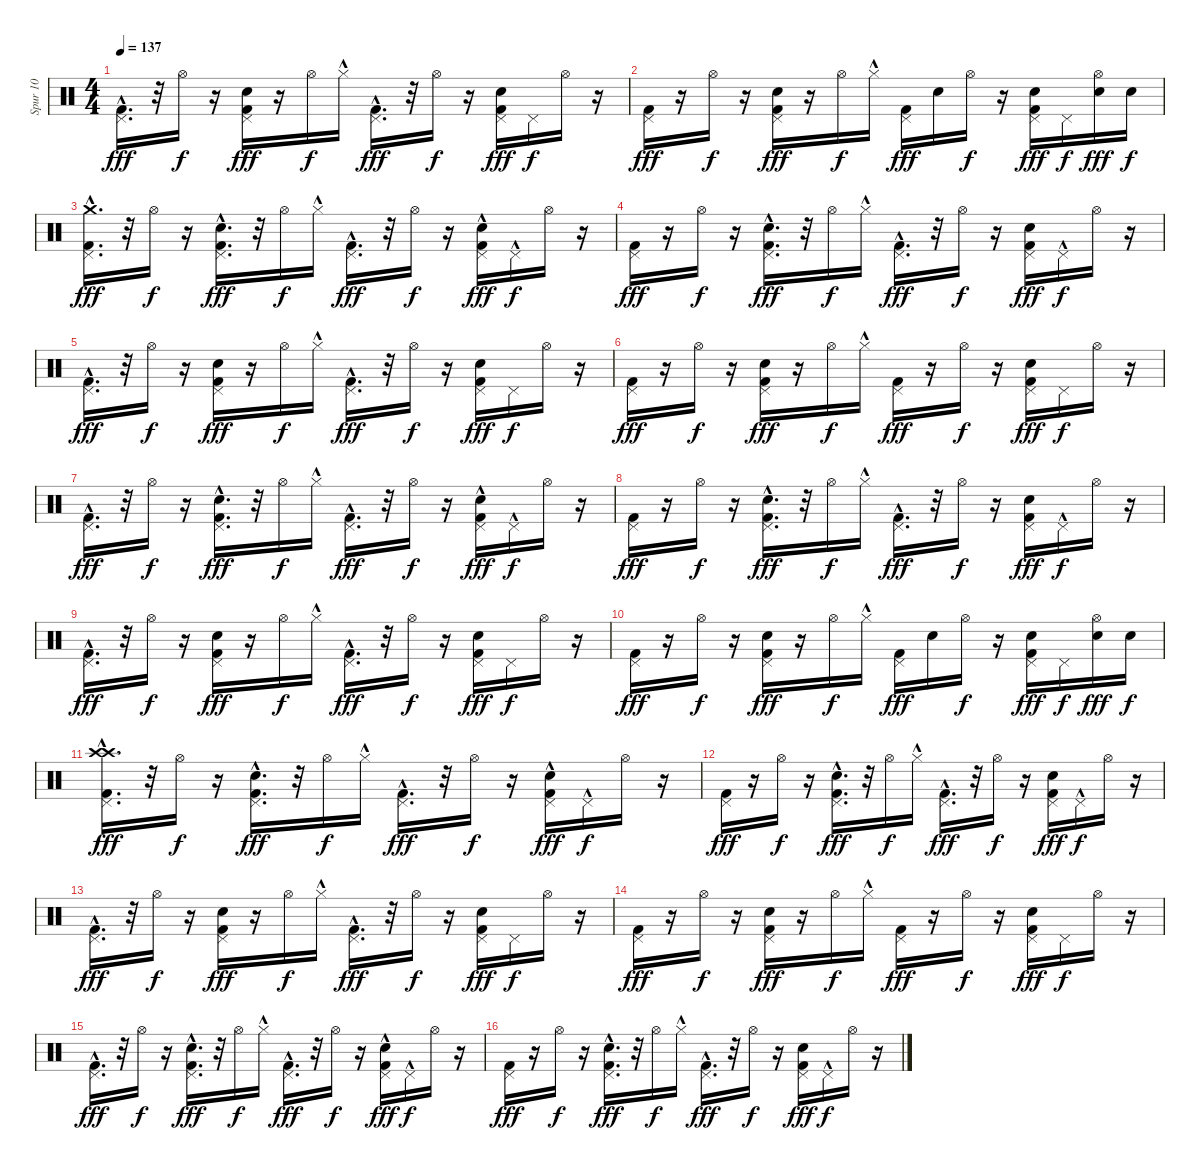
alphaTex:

\track ("Spur 10" "Spur 10") {instrument percussion}
\staff {score}
\articulation defaults
\ts (4 4)
\tempo 137
\clef neutral
\ks c
("Pedal Hi-Hat (hit)" "Kick (hit) 2"{hac}).16{d dy fff} r.32 "Hi-Hat (open)".16{dy f} r.16 ("Snare (hit) 2" "Pedal Hi-Hat (hit)" "Kick (hit) 2").16{dy fff} r.16 "Hi-Hat (open)".16{dy f} "Hi-Hat (closed)"{hac}.16 ("Pedal Hi-Hat (hit)" "Kick (hit) 2"{hac}).16{d dy fff} r.32 "Hi-Hat (open)".16{dy f} r.16 ("Snare (hit) 2" "Pedal Hi-Hat (hit)" "Kick (hit) 2").16{dy fff} "Pedal Hi-Hat (hit)".16{dy f} "Hi-Hat (open)".16 r.16 |
("Pedal Hi-Hat (hit)" "Kick (hit) 2").16{dy fff} r.16 "Hi-Hat (open)".16{dy f} r.16 ("Snare (hit) 2" "Pedal Hi-Hat (hit)" "Kick (hit) 2").16{dy fff} r.16 "Hi-Hat (open)".16{dy f} "Hi-Hat (closed)"{hac}.16 ("Pedal Hi-Hat (hit)" "Kick (hit) 2").16{dy fff} "Snare (hit) 2".16 "Hi-Hat (open)".16{dy f} r.16 ("Snare (hit) 2" "Pedal Hi-Hat (hit)" "Kick (hit) 2").16{dy fff} "Pedal Hi-Hat (hit)".16{dy f} ("Snare (hit) 2" "Hi-Hat (open)").16{dy fff} "Snare (hit) 2".16{dy f} |
("Crash medium (hit)" "Pedal Hi-Hat (hit)" "Kick (hit) 2"{hac}).16{d dy fff} r.32 "Hi-Hat (open)".16{dy f} r.16 ("Snare (hit) 2" "Pedal Hi-Hat (hit)" "Kick (hit) 2"{hac}).16{d dy fff} r.32 "Hi-Hat (open)".16{dy f} "Hi-Hat (closed)"{hac}.16 ("Pedal Hi-Hat (hit)"{hac} "Kick (hit) 2"{hac}).16{d dy fff} r.32 "Hi-Hat (open)".16{dy f} r.16 ("Snare (hit) 2" "Pedal Hi-Hat (hit)" "Kick (hit) 2"{hac}).16{dy fff} "Pedal Hi-Hat (hit)"{hac}.16{dy f} "Hi-Hat (open)".16 r.16 |
("Pedal Hi-Hat (hit)" "Kick (hit) 2").16{dy fff} r.16 "Hi-Hat (open)".16{dy f} r.16 ("Snare (hit) 2" "Pedal Hi-Hat (hit)" "Kick (hit) 2"{hac}).16{d dy fff} r.32 "Hi-Hat (open)".16{dy f} "Hi-Hat (closed)"{hac}.16 ("Pedal Hi-Hat (hit)" "Kick (hit) 2"{hac}).16{d dy fff} r.32 "Hi-Hat (open)".16{dy f} r.16 ("Snare (hit) 2" "Pedal Hi-Hat (hit)" "Kick (hit) 2").16{dy fff} "Pedal Hi-Hat (hit)"{hac}.16{dy f} "Hi-Hat (open)".16 r.16 |
("Pedal Hi-Hat (hit)" "Kick (hit) 2"{hac}).16{d dy fff} r.32 "Hi-Hat (open)".16{dy f} r.16 ("Snare (hit) 2" "Pedal Hi-Hat (hit)" "Kick (hit) 2").16{dy fff} r.16 "Hi-Hat (open)".16{dy f} "Hi-Hat (closed)"{hac}.16 ("Pedal Hi-Hat (hit)" "Kick (hit) 2"{hac}).16{d dy fff} r.32 "Hi-Hat (open)".16{dy f} r.16 ("Snare (hit) 2" "Pedal Hi-Hat (hit)" "Kick (hit) 2").16{dy fff} "Pedal Hi-Hat (hit)".16{dy f} "Hi-Hat (open)".16 r.16 |
("Pedal Hi-Hat (hit)" "Kick (hit) 2").16{dy fff} r.16 "Hi-Hat (open)".16{dy f} r.16 ("Snare (hit) 2" "Pedal Hi-Hat (hit)" "Kick (hit) 2").16{dy fff} r.16 "Hi-Hat (open)".16{dy f} "Hi-Hat (closed)"{hac}.16 ("Pedal Hi-Hat (hit)" "Kick (hit) 2").16{dy fff} r.16 "Hi-Hat (open)".16{dy f} r.16 ("Snare (hit) 2" "Pedal Hi-Hat (hit)" "Kick (hit) 2").16{dy fff} "Pedal Hi-Hat (hit)".16{dy f} "Hi-Hat (open)".16 r.16 |
("Pedal Hi-Hat (hit)" "Kick (hit) 2"{hac}).16{d dy fff} r.32 "Hi-Hat (open)".16{dy f} r.16 ("Snare (hit) 2" "Pedal Hi-Hat (hit)" "Kick (hit) 2"{hac}).16{d dy fff} r.32 "Hi-Hat (open)".16{dy f} "Hi-Hat (closed)"{hac}.16 ("Pedal Hi-Hat (hit)"{hac} "Kick (hit) 2"{hac}).16{d dy fff} r.32 "Hi-Hat (open)".16{dy f} r.16 ("Snare (hit) 2" "Pedal Hi-Hat (hit)" "Kick (hit) 2"{hac}).16{dy fff} "Pedal Hi-Hat (hit)"{hac}.16{dy f} "Hi-Hat (open)".16 r.16 |
("Pedal Hi-Hat (hit)" "Kick (hit) 2").16{dy fff} r.16 "Hi-Hat (open)".16{dy f} r.16 ("Snare (hit) 2" "Pedal Hi-Hat (hit)" "Kick (hit) 2"{hac}).16{d dy fff} r.32 "Hi-Hat (open)".16{dy f} "Hi-Hat (closed)"{hac}.16 ("Pedal Hi-Hat (hit)" "Kick (hit) 2"{hac}).16{d dy fff} r.32 "Hi-Hat (open)".16{dy f} r.16 ("Snare (hit) 2" "Pedal Hi-Hat (hit)" "Kick (hit) 2").16{dy fff} "Pedal Hi-Hat (hit)"{hac}.16{dy f} "Hi-Hat (open)".16 r.16 |
("Pedal Hi-Hat (hit)" "Kick (hit) 2"{hac}).16{d dy fff} r.32 "Hi-Hat (open)".16{dy f} r.16 ("Snare (hit) 2" "Pedal Hi-Hat (hit)" "Kick (hit) 2").16{dy fff} r.16 "Hi-Hat (open)".16{dy f} "Hi-Hat (closed)"{hac}.16 ("Pedal Hi-Hat (hit)" "Kick (hit) 2"{hac}).16{d dy fff} r.32 "Hi-Hat (open)".16{dy f} r.16 ("Snare (hit) 2" "Pedal Hi-Hat (hit)" "Kick (hit) 2").16{dy fff} "Pedal Hi-Hat (hit)".16{dy f} "Hi-Hat (open)".16 r.16 |
("Pedal Hi-Hat (hit)" "Kick (hit) 2").16{dy fff} r.16 "Hi-Hat (open)".16{dy f} r.16 ("Snare (hit) 2" "Pedal Hi-Hat (hit)" "Kick (hit) 2").16{dy fff} r.16 "Hi-Hat (open)".16{dy f} "Hi-Hat (closed)"{hac}.16 ("Pedal Hi-Hat (hit)" "Kick (hit) 2").16{dy fff} "Snare (hit) 2".16 "Hi-Hat (open)".16{dy f} r.16 ("Snare (hit) 2" "Pedal Hi-Hat (hit)" "Kick (hit) 2").16{dy fff} "Pedal Hi-Hat (hit)".16{dy f} ("Snare (hit) 2" "Hi-Hat (open)").16{dy fff} "Snare (hit) 2".16{dy f} |
("Kick (hit) 2"{hac} "Pedal Hi-Hat (hit)" "Crash high (hit)" "Crash high (hit)").16{d dy fff} r.32 "Hi-Hat (open)".16{dy f} r.16 ("Snare (hit) 2" "Pedal Hi-Hat (hit)" "Kick (hit) 2"{hac}).16{d dy fff} r.32 "Hi-Hat (open)".16{dy f} "Hi-Hat (closed)"{hac}.16 ("Pedal Hi-Hat (hit)"{hac} "Kick (hit) 2"{hac}).16{d dy fff} r.32 "Hi-Hat (open)".16{dy f} r.16 ("Snare (hit) 2" "Pedal Hi-Hat (hit)" "Kick (hit) 2"{hac}).16{dy fff} "Pedal Hi-Hat (hit)"{hac}.16{dy f} "Hi-Hat (open)".16 r.16 |
("Pedal Hi-Hat (hit)" "Kick (hit) 2").16{dy fff} r.16 "Hi-Hat (open)".16{dy f} r.16 ("Snare (hit) 2" "Pedal Hi-Hat (hit)" "Kick (hit) 2"{hac}).16{d dy fff} r.32 "Hi-Hat (open)".16{dy f} "Hi-Hat (closed)"{hac}.16 ("Pedal Hi-Hat (hit)" "Kick (hit) 2"{hac}).16{d dy fff} r.32 "Hi-Hat (open)".16{dy f} r.16 ("Snare (hit) 2" "Pedal Hi-Hat (hit)" "Kick (hit) 2").16{dy fff} "Pedal Hi-Hat (hit)"{hac}.16{dy f} "Hi-Hat (open)".16 r.16 |
("Pedal Hi-Hat (hit)" "Kick (hit) 2"{hac}).16{d dy fff} r.32 "Hi-Hat (open)".16{dy f} r.16 ("Snare (hit) 2" "Pedal Hi-Hat (hit)" "Kick (hit) 2").16{dy fff} r.16 "Hi-Hat (open)".16{dy f} "Hi-Hat (closed)"{hac}.16 ("Pedal Hi-Hat (hit)" "Kick (hit) 2"{hac}).16{d dy fff} r.32 "Hi-Hat (open)".16{dy f} r.16 ("Snare (hit) 2" "Pedal Hi-Hat (hit)" "Kick (hit) 2").16{dy fff} "Pedal Hi-Hat (hit)".16{dy f} "Hi-Hat (open)".16 r.16 |
("Pedal Hi-Hat (hit)" "Kick (hit) 2").16{dy fff} r.16 "Hi-Hat (open)".16{dy f} r.16 ("Snare (hit) 2" "Pedal Hi-Hat (hit)" "Kick (hit) 2").16{dy fff} r.16 "Hi-Hat (open)".16{dy f} "Hi-Hat (closed)"{hac}.16 ("Pedal Hi-Hat (hit)" "Kick (hit) 2").16{dy fff} r.16 "Hi-Hat (open)".16{dy f} r.16 ("Snare (hit) 2" "Pedal Hi-Hat (hit)" "Kick (hit) 2").16{dy fff} "Pedal Hi-Hat (hit)".16{dy f} "Hi-Hat (open)".16 r.16 |
("Pedal Hi-Hat (hit)" "Kick (hit) 2"{hac}).16{d dy fff} r.32 "Hi-Hat (open)".16{dy f} r.16 ("Snare (hit) 2" "Pedal Hi-Hat (hit)" "Kick (hit) 2"{hac}).16{d dy fff} r.32 "Hi-Hat (open)".16{dy f} "Hi-Hat (closed)"{hac}.16 ("Pedal Hi-Hat (hit)"{hac} "Kick (hit) 2"{hac}).16{d dy fff} r.32 "Hi-Hat (open)".16{dy f} r.16 ("Snare (hit) 2" "Pedal Hi-Hat (hit)" "Kick (hit) 2"{hac}).16{dy fff} "Pedal Hi-Hat (hit)"{hac}.16{dy f} "Hi-Hat (open)".16 r.16 |
("Pedal Hi-Hat (hit)" "Kick (hit) 2").16{dy fff} r.16 "Hi-Hat (open)".16{dy f} r.16 ("Snare (hit) 2" "Pedal Hi-Hat (hit)" "Kick (hit) 2"{hac}).16{d dy fff} r.32 "Hi-Hat (open)".16{dy f} "Hi-Hat (closed)"{hac}.16 ("Pedal Hi-Hat (hit)" "Kick (hit) 2"{hac}).16{d dy fff} r.32 "Hi-Hat (open)".16{dy f} r.16 ("Snare (hit) 2" "Pedal Hi-Hat (hit)" "Kick (hit) 2").16{dy fff} "Pedal Hi-Hat (hit)"{hac}.16{dy f} "Hi-Hat (open)".16 r.16
